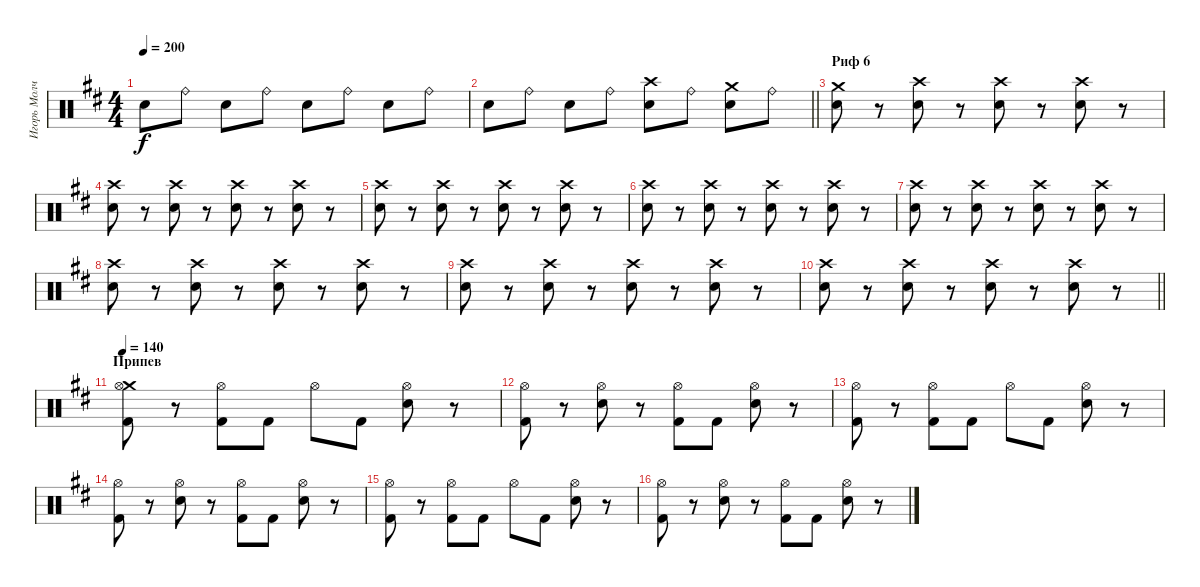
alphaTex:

\track ("Игорь Молчанов" "Игорь Молч") {instrument percussion}
\staff {score}
\articulation defaults
\ts (4 4)
\tempo 200
\clef neutral
\ks d "Snare (hit) 2".8{dy f} "Ride (bell)".8 "Snare (hit) 2".8 "Ride (bell)".8 "Snare (hit) 2".8 "Ride (bell)".8 "Snare (hit) 2".8 "Ride (bell)".8
|
\barLineRight lightlight "Snare (hit) 2".8 "Ride (bell)".8 "Snare (hit) 2".8 "Ride (bell)".8
("Crash high (hit)" "Snare (hit) 2").8 "Ride (bell)".8 ("Crash medium (hit)" "Snare (hit) 2").8 "Ride (bell)".8 |
\section ("" "Риф 6")
("Crash medium (hit)" "Snare (hit) 2").8 r.8 ("Crash high (hit)" "Snare (hit) 2").8 r.8 ("Crash high (hit)" "Snare (hit) 2").8 r.8 ("Crash high (hit)" "Snare (hit) 2").8 r.8 |
("Crash high (hit)" "Snare (hit) 2").8 r.8 ("Crash high (hit)" "Snare (hit) 2").8 r.8 ("Crash high (hit)" "Snare (hit) 2").8 r.8 ("Crash high (hit)" "Snare (hit) 2").8 r.8 |
("Crash high (hit)" "Snare (hit) 2").8 r.8 ("Crash high (hit)" "Snare (hit) 2").8 r.8 ("Crash high (hit)" "Snare (hit) 2").8 r.8 ("Crash high (hit)" "Snare (hit) 2").8 r.8 |
("Crash high (hit)" "Snare (hit) 2").8 r.8 ("Crash high (hit)" "Snare (hit) 2").8 r.8 ("Crash high (hit)" "Snare (hit) 2").8 r.8 ("Crash high (hit)" "Snare (hit) 2").8 r.8 |
("Crash high (hit)" "Snare (hit) 2").8 r.8 ("Crash high (hit)" "Snare (hit) 2").8 r.8 ("Crash high (hit)" "Snare (hit) 2").8 r.8 ("Crash high (hit)" "Snare (hit) 2").8 r.8 |
("Crash high (hit)" "Snare (hit) 2").8 r.8 ("Crash high (hit)" "Snare (hit) 2").8 r.8 ("Crash high (hit)" "Snare (hit) 2").8 r.8 ("Crash high (hit)" "Snare (hit) 2").8 r.8 |
("Crash high (hit)" "Snare (hit) 2").8 r.8 ("Crash high (hit)" "Snare (hit) 2").8 r.8 ("Crash high (hit)" "Snare (hit) 2").8 r.8 ("Crash high (hit)" "Snare (hit) 2").8 r.8 |
\barLineRight lightlight
("Crash high (hit)" "Snare (hit) 2").8 r.8 ("Crash high (hit)" "Snare (hit) 2").8 r.8 ("Crash high (hit)" "Snare (hit) 2").8 r.8 ("Crash high (hit)" "Snare (hit) 2").8 r.8 |
\section ("" "Припев")
\tempo 140
("Crash medium (hit)" "Hi-Hat (open)" "Kick (hit) 2").8 r.8 ("Hi-Hat (open)" "Kick (hit) 2").8 "Kick (hit) 2".8 "Hi-Hat (open)".8 "Kick (hit) 2".8 ("Hi-Hat (open)" "Snare (hit) 2").8 r.8 |
("Hi-Hat (open)" "Kick (hit) 2").8 r.8 ("Hi-Hat (open)" "Snare (hit) 2").8 r.8 ("Hi-Hat (open)" "Kick (hit) 2").8 "Kick (hit) 2".8 ("Hi-Hat (open)" "Snare (hit) 2").8 r.8 |
("Hi-Hat (open)" "Kick (hit) 2").8 r.8 ("Hi-Hat (open)" "Kick (hit) 2").8 "Kick (hit) 2".8 "Hi-Hat (open)".8 "Kick (hit) 2".8 ("Hi-Hat (open)" "Snare (hit) 2").8 r.8 |
("Hi-Hat (open)" "Kick (hit) 2").8 r.8 ("Hi-Hat (open)" "Snare (hit) 2").8 r.8 ("Hi-Hat (open)" "Kick (hit) 2").8 "Kick (hit) 2".8 ("Hi-Hat (open)" "Snare (hit) 2").8 r.8 |
("Hi-Hat (open)" "Kick (hit) 2").8 r.8 ("Hi-Hat (open)" "Kick (hit) 2").8 "Kick (hit) 2".8 "Hi-Hat (open)".8 "Kick (hit) 2".8 ("Hi-Hat (open)" "Snare (hit) 2").8 r.8 |
("Hi-Hat (open)" "Kick (hit) 2").8 r.8 ("Hi-Hat (open)" "Snare (hit) 2").8 r.8 ("Hi-Hat (open)" "Kick (hit) 2").8 "Kick (hit) 2".8 ("Hi-Hat (open)" "Snare (hit) 2").8 r.8
